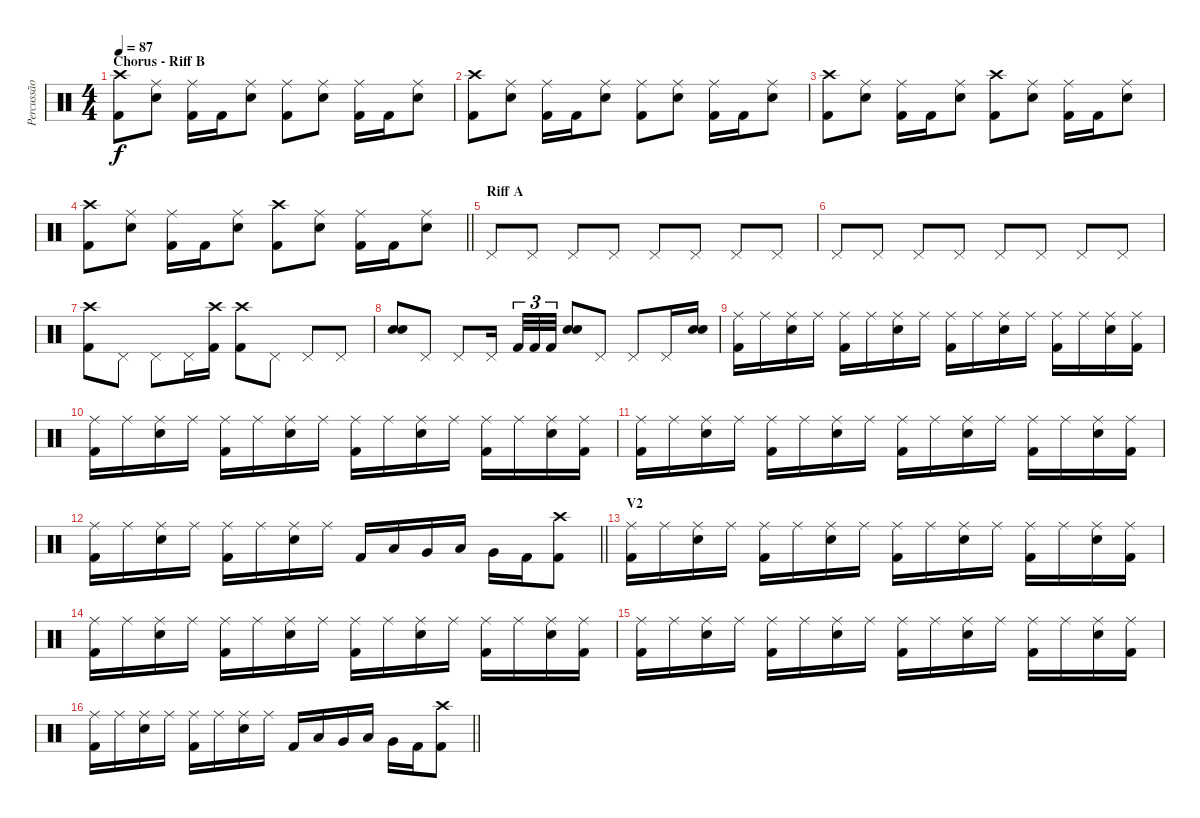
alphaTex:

\track ("Percussão" "Percussão") {instrument percussion}
\staff {score}
\articulation defaults
\ts (4 4)
\section ("" "Chorus - Riff B")
\tempo 87
\clef neutral
\ks c
("Crash high (hit)" "Kick (hit) 2").8{dy f} ("Ride (middle)" "Electric Snare (hit)").8 ("Ride (middle)" "Kick (hit) 2").16 "Kick (hit) 2".16 ("Ride (middle)" "Electric Snare (hit)").8 ("Ride (middle)" "Kick (hit) 2").8 ("Ride (middle)" "Electric Snare (hit)").8 ("Ride (middle)" "Kick (hit) 2").16 "Kick (hit) 2".16 ("Ride (middle)" "Electric Snare (hit)").8 |
("Crash high (hit)" "Kick (hit) 2").8 ("Ride (middle)" "Electric Snare (hit)").8 ("Ride (middle)" "Kick (hit) 2").16 "Kick (hit) 2".16 ("Ride (middle)" "Electric Snare (hit)").8 ("Ride (middle)" "Kick (hit) 2").8 ("Ride (middle)" "Electric Snare (hit)").8 ("Ride (middle)" "Kick (hit) 2").16 "Kick (hit) 2".16 ("Ride (middle)" "Electric Snare (hit)").8 |
("Crash high (hit)" "Kick (hit) 2").8 ("Ride (middle)" "Electric Snare (hit)").8 ("Ride (middle)" "Kick (hit) 2").16 "Kick (hit) 2".16 ("Ride (middle)" "Electric Snare (hit)").8 ("Crash high (hit)" "Kick (hit) 2").8 ("Ride (middle)" "Electric Snare (hit)").8 ("Ride (middle)" "Kick (hit) 2").16 "Kick (hit) 2".16 ("Ride (middle)" "Electric Snare (hit)").8 |
\barLineRight lightlight
("Crash high (hit)" "Kick (hit) 2").8 ("Ride (middle)" "Electric Snare (hit)").8 ("Ride (middle)" "Kick (hit) 2").16 "Kick (hit) 2".16 ("Ride (middle)" "Electric Snare (hit)").8 ("Crash high (hit)" "Kick (hit) 2").8 ("Ride (middle)" "Electric Snare (hit)").8 ("Ride (middle)" "Kick (hit) 2").16 "Kick (hit) 2".16 ("Ride (middle)" "Electric Snare (hit)").8 |
\section ("" "Riff A")
"Pedal Hi-Hat (hit)".8 "Pedal Hi-Hat (hit)".8 "Pedal Hi-Hat (hit)".8 "Pedal Hi-Hat (hit)".8 "Pedal Hi-Hat (hit)".8 "Pedal Hi-Hat (hit)".8 "Pedal Hi-Hat (hit)".8 "Pedal Hi-Hat (hit)".8 |
"Pedal Hi-Hat (hit)".8 "Pedal Hi-Hat (hit)".8 "Pedal Hi-Hat (hit)".8 "Pedal Hi-Hat (hit)".8 "Pedal Hi-Hat (hit)".8 "Pedal Hi-Hat (hit)".8 "Pedal Hi-Hat (hit)".8 "Pedal Hi-Hat (hit)".8 |
("Crash high (hit)" "Kick (hit) 2").8 "Pedal Hi-Hat (hit)".8 "Pedal Hi-Hat (hit)".8 "Pedal Hi-Hat (hit)".16 ("Crash high (hit)" "Kick (hit) 2").16 ("Crash high (hit)" "Kick (hit) 2").8 "Pedal Hi-Hat (hit)".8 "Pedal Hi-Hat (hit)".8 "Pedal Hi-Hat (hit)".8 |
("Electric Snare (hit)" "Electric Snare (hit)").8 "Pedal Hi-Hat (hit)".8 "Pedal Hi-Hat (hit)".8 "Pedal Hi-Hat (hit)".16{beam splitsecondary} "Kick (hit) 2".32{tu (3 2)} "Kick (hit) 2".32{tu (3 2)} "Kick (hit) 2".32{tu (3 2)} ("Electric Snare (hit)" "Electric Snare (hit)").8 "Pedal Hi-Hat (hit)".8 "Pedal Hi-Hat (hit)".8 "Pedal Hi-Hat (hit)".16 ("Electric Snare (hit)" "Electric Snare (hit)").16 |
("Ride (middle)" "Kick (hit) 2").16 "Ride (middle)".16 ("Ride (middle)" "Electric Snare (hit)").16 "Ride (middle)".16 ("Ride (middle)" "Kick (hit) 2").16 "Ride (middle)".16 ("Ride (middle)" "Electric Snare (hit)").16 "Ride (middle)".16 ("Ride (middle)" "Kick (hit) 2").16 "Ride (middle)".16 ("Ride (middle)" "Electric Snare (hit)").16 "Ride (middle)".16 ("Ride (middle)" "Kick (hit) 2").16 "Ride (middle)".16 ("Ride (middle)" "Electric Snare (hit)").16 ("Ride (middle)" "Kick (hit) 2").16 |
("Ride (middle)" "Kick (hit) 2").16 "Ride (middle)".16 ("Ride (middle)" "Electric Snare (hit)").16 "Ride (middle)".16 ("Ride (middle)" "Kick (hit) 2").16 "Ride (middle)".16 ("Ride (middle)" "Electric Snare (hit)").16 "Ride (middle)".16 ("Ride (middle)" "Kick (hit) 2").16 "Ride (middle)".16 ("Ride (middle)" "Electric Snare (hit)").16 "Ride (middle)".16 ("Ride (middle)" "Kick (hit) 2").16 "Ride (middle)".16 ("Ride (middle)" "Electric Snare (hit)").16 ("Ride (middle)" "Kick (hit) 2").16 |
("Ride (middle)" "Kick (hit) 2").16 "Ride (middle)".16 ("Ride (middle)" "Electric Snare (hit)").16 "Ride (middle)".16 ("Ride (middle)" "Kick (hit) 2").16 "Ride (middle)".16 ("Ride (middle)" "Electric Snare (hit)").16 "Ride (middle)".16 ("Ride (middle)" "Kick (hit) 2").16 "Ride (middle)".16 ("Ride (middle)" "Electric Snare (hit)").16 "Ride (middle)".16 ("Ride (middle)" "Kick (hit) 2").16 "Ride (middle)".16 ("Ride (middle)" "Electric Snare (hit)").16 ("Ride (middle)" "Kick (hit) 2").16 |
\barLineRight lightlight
("Ride (middle)" "Kick (hit) 2").16 "Ride (middle)".16 ("Ride (middle)" "Electric Snare (hit)").16 "Ride (middle)".16 ("Ride (middle)" "Kick (hit) 2").16 "Ride (middle)".16 ("Ride (middle)" "Electric Snare (hit)").16 "Ride (middle)".16 "Kick (hit) 2".16 "Low Tom (hit)".16 "Very Low Tom (hit)".16 "Low Floor Tom (hit)".16 "Very Low Tom (hit)".16 "Kick (hit) 2".16 ("Crash high (hit)" "Kick (hit) 2").8 |
\section ("" "V2")
("Ride (middle)" "Kick (hit) 2").16 "Ride (middle)".16 ("Ride (middle)" "Electric Snare (hit)").16 "Ride (middle)".16 ("Ride (middle)" "Kick (hit) 2").16 "Ride (middle)".16 ("Ride (middle)" "Electric Snare (hit)").16 "Ride (middle)".16 ("Ride (middle)" "Kick (hit) 2").16 "Ride (middle)".16 ("Ride (middle)" "Electric Snare (hit)").16 "Ride (middle)".16 ("Ride (middle)" "Kick (hit) 2").16 "Ride (middle)".16 ("Ride (middle)" "Electric Snare (hit)").16 ("Ride (middle)" "Kick (hit) 2").16 |
("Ride (middle)" "Kick (hit) 2").16 "Ride (middle)".16 ("Ride (middle)" "Electric Snare (hit)").16 "Ride (middle)".16 ("Ride (middle)" "Kick (hit) 2").16 "Ride (middle)".16 ("Ride (middle)" "Electric Snare (hit)").16 "Ride (middle)".16 ("Ride (middle)" "Kick (hit) 2").16 "Ride (middle)".16 ("Ride (middle)" "Electric Snare (hit)").16 "Ride (middle)".16 ("Ride (middle)" "Kick (hit) 2").16 "Ride (middle)".16 ("Ride (middle)" "Electric Snare (hit)").16 ("Ride (middle)" "Kick (hit) 2").16 |
("Ride (middle)" "Kick (hit) 2").16 "Ride (middle)".16 ("Ride (middle)" "Electric Snare (hit)").16 "Ride (middle)".16 ("Ride (middle)" "Kick (hit) 2").16 "Ride (middle)".16 ("Ride (middle)" "Electric Snare (hit)").16 "Ride (middle)".16 ("Ride (middle)" "Kick (hit) 2").16 "Ride (middle)".16 ("Ride (middle)" "Electric Snare (hit)").16 "Ride (middle)".16 ("Ride (middle)" "Kick (hit) 2").16 "Ride (middle)".16 ("Ride (middle)" "Electric Snare (hit)").16 ("Ride (middle)" "Kick (hit) 2").16 |
\barLineRight lightlight
("Ride (middle)" "Kick (hit) 2").16 "Ride (middle)".16 ("Ride (middle)" "Electric Snare (hit)").16 "Ride (middle)".16 ("Ride (middle)" "Kick (hit) 2").16 "Ride (middle)".16 ("Ride (middle)" "Electric Snare (hit)").16 "Ride (middle)".16 "Kick (hit) 2".16 "Low Tom (hit)".16 "Very Low Tom (hit)".16 "Low Floor Tom (hit)".16 "Very Low Tom (hit)".16 "Kick (hit) 2".16 ("Crash high (hit)" "Kick (hit) 2").8
